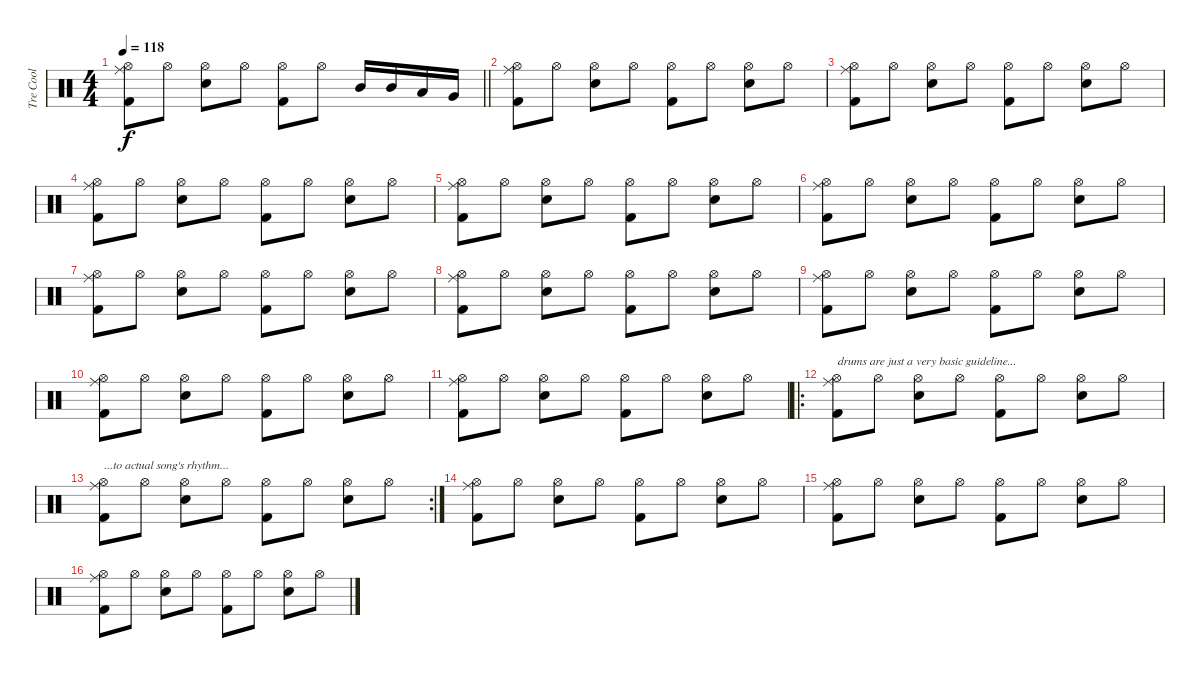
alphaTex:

\track ("Tre Cool" "Tre Cool") {instrument percussion}
\staff {score}
\articulation defaults
\ts (4 4)
\tempo 118
\clef neutral
\barLineRight lightlight
\ks c
("Hi-Hat (open)" "Ride (middle)" "Kick (hit) 2").8{dy f} "Hi-Hat (open)".8 ("Hi-Hat (open)" "Snare (hit) 2").8 "Hi-Hat (open)".8 ("Hi-Hat (open)" "Kick (hit) 2").8 "Hi-Hat (open)".8 "Mid Tom (hit)".16 "Mid Tom (hit)".16 "Low Tom (hit)".16 "Very Low Tom (hit)".16 |
("Hi-Hat (open)" "Ride (middle)" "Kick (hit) 2").8 "Hi-Hat (open)".8 ("Hi-Hat (open)" "Snare (hit) 2").8 "Hi-Hat (open)".8 ("Hi-Hat (open)" "Kick (hit) 2").8 "Hi-Hat (open)".8 ("Hi-Hat (open)" "Snare (hit) 2").8 "Hi-Hat (open)".8 |
("Hi-Hat (open)" "Ride (middle)" "Kick (hit) 2").8 "Hi-Hat (open)".8 ("Hi-Hat (open)" "Snare (hit) 2").8 "Hi-Hat (open)".8 ("Hi-Hat (open)" "Kick (hit) 2").8 "Hi-Hat (open)".8 ("Hi-Hat (open)" "Snare (hit) 2").8 "Hi-Hat (open)".8 |
("Hi-Hat (open)" "Ride (middle)" "Kick (hit) 2").8 "Hi-Hat (open)".8 ("Hi-Hat (open)" "Snare (hit) 2").8 "Hi-Hat (open)".8 ("Hi-Hat (open)" "Kick (hit) 2").8 "Hi-Hat (open)".8 ("Hi-Hat (open)" "Snare (hit) 2").8 "Hi-Hat (open)".8 |
("Hi-Hat (open)" "Ride (middle)" "Kick (hit) 2").8 "Hi-Hat (open)".8 ("Hi-Hat (open)" "Snare (hit) 2").8 "Hi-Hat (open)".8 ("Hi-Hat (open)" "Kick (hit) 2").8 "Hi-Hat (open)".8 ("Hi-Hat (open)" "Snare (hit) 2").8 "Hi-Hat (open)".8 |
("Hi-Hat (open)" "Ride (middle)" "Kick (hit) 2").8 "Hi-Hat (open)".8 ("Hi-Hat (open)" "Snare (hit) 2").8 "Hi-Hat (open)".8 ("Hi-Hat (open)" "Kick (hit) 2").8 "Hi-Hat (open)".8 ("Hi-Hat (open)" "Snare (hit) 2").8 "Hi-Hat (open)".8 |
("Hi-Hat (open)" "Ride (middle)" "Kick (hit) 2").8 "Hi-Hat (open)".8 ("Hi-Hat (open)" "Snare (hit) 2").8 "Hi-Hat (open)".8 ("Hi-Hat (open)" "Kick (hit) 2").8 "Hi-Hat (open)".8 ("Hi-Hat (open)" "Snare (hit) 2").8 "Hi-Hat (open)".8 |
("Hi-Hat (open)" "Ride (middle)" "Kick (hit) 2").8 "Hi-Hat (open)".8 ("Hi-Hat (open)" "Snare (hit) 2").8 "Hi-Hat (open)".8 ("Hi-Hat (open)" "Kick (hit) 2").8 "Hi-Hat (open)".8 ("Hi-Hat (open)" "Snare (hit) 2").8 "Hi-Hat (open)".8 |
("Hi-Hat (open)" "Ride (middle)" "Kick (hit) 2").8 "Hi-Hat (open)".8 ("Hi-Hat (open)" "Snare (hit) 2").8 "Hi-Hat (open)".8 ("Hi-Hat (open)" "Kick (hit) 2").8 "Hi-Hat (open)".8 ("Hi-Hat (open)" "Snare (hit) 2").8 "Hi-Hat (open)".8 |
("Hi-Hat (open)" "Ride (middle)" "Kick (hit) 2").8 "Hi-Hat (open)".8 ("Hi-Hat (open)" "Snare (hit) 2").8 "Hi-Hat (open)".8 ("Hi-Hat (open)" "Kick (hit) 2").8 "Hi-Hat (open)".8 ("Hi-Hat (open)" "Snare (hit) 2").8 "Hi-Hat (open)".8 |
("Hi-Hat (open)" "Ride (middle)" "Kick (hit) 2").8 "Hi-Hat (open)".8 ("Hi-Hat (open)" "Snare (hit) 2").8 "Hi-Hat (open)".8 ("Hi-Hat (open)" "Kick (hit) 2").8 "Hi-Hat (open)".8 ("Hi-Hat (open)" "Snare (hit) 2").8 "Hi-Hat (open)".8 |
\ro
("Hi-Hat (open)" "Ride (middle)" "Kick (hit) 2").8{txt "drums are just a very basic guideline..."} "Hi-Hat (open)".8 ("Hi-Hat (open)" "Snare (hit) 2").8 "Hi-Hat (open)".8 ("Hi-Hat (open)" "Kick (hit) 2").8 "Hi-Hat (open)".8 ("Hi-Hat (open)" "Snare (hit) 2").8 "Hi-Hat (open)".8 |
\rc 2
("Hi-Hat (open)" "Ride (middle)" "Kick (hit) 2").8{txt "...to actual song's rhythm..."} "Hi-Hat (open)".8 ("Hi-Hat (open)" "Snare (hit) 2").8 "Hi-Hat (open)".8 ("Hi-Hat (open)" "Kick (hit) 2").8 "Hi-Hat (open)".8 ("Hi-Hat (open)" "Snare (hit) 2").8 "Hi-Hat (open)".8 |
("Hi-Hat (open)" "Ride (middle)" "Kick (hit) 2").8 "Hi-Hat (open)".8 ("Hi-Hat (open)" "Snare (hit) 2").8 "Hi-Hat (open)".8 ("Hi-Hat (open)" "Kick (hit) 2").8 "Hi-Hat (open)".8 ("Hi-Hat (open)" "Snare (hit) 2").8 "Hi-Hat (open)".8 |
("Hi-Hat (open)" "Ride (middle)" "Kick (hit) 2").8 "Hi-Hat (open)".8 ("Hi-Hat (open)" "Snare (hit) 2").8 "Hi-Hat (open)".8 ("Hi-Hat (open)" "Kick (hit) 2").8 "Hi-Hat (open)".8 ("Hi-Hat (open)" "Snare (hit) 2").8 "Hi-Hat (open)".8 |
("Hi-Hat (open)" "Ride (middle)" "Kick (hit) 2").8 "Hi-Hat (open)".8 ("Hi-Hat (open)" "Snare (hit) 2").8 "Hi-Hat (open)".8 ("Hi-Hat (open)" "Kick (hit) 2").8 "Hi-Hat (open)".8 ("Hi-Hat (open)" "Snare (hit) 2").8 "Hi-Hat (open)".8
